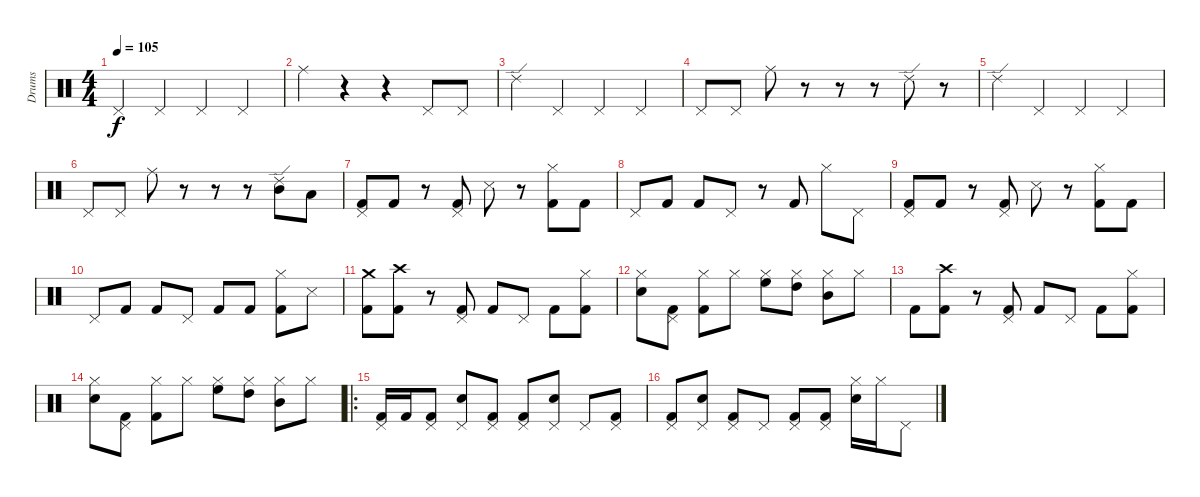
\track (" Drums" " Drums") {instrument percussion}
\staff {score}
\articulation defaults
\ts (4 4)
\tempo 105
\clef neutral
\ks c "Pedal Hi-Hat (hit)".4{dy f} "Pedal Hi-Hat (hit)".4 "Pedal Hi-Hat (hit)".4 "Pedal Hi-Hat (hit)".4
|
"Ride (middle)".4 r.4 r.4 "Pedal Hi-Hat (hit)".8 "Pedal Hi-Hat (hit)".8 |
"Ride (edge) 2".4 "Pedal Hi-Hat (hit)".4 "Pedal Hi-Hat (hit)".4 "Pedal Hi-Hat (hit)".4 |
"Pedal Hi-Hat (hit)".8 "Pedal Hi-Hat (hit)".8 "Ride (middle)".8 r.8 r.8 r.8 "Ride (edge) 2".8 r.8 |
"Ride (edge) 2".4 "Pedal Hi-Hat (hit)".4 "Pedal Hi-Hat (hit)".4 "Pedal Hi-Hat (hit)".4 |
"Pedal Hi-Hat (hit)".8 "Pedal Hi-Hat (hit)".8 "Ride (middle)".8 r.8 r.8 r.8 ("Ride (edge) 2" "Mid Tom (hit)").8 "Low Tom (hit)".8 |
("Pedal Hi-Hat (hit)" "Kick (hit) 2").8 "Kick (hit) 2".8 r.8 ("Pedal Hi-Hat (hit)" "Kick (hit) 2").8 "Snare (side stick) 3".8 r.8 ("Kick (hit) 2" "Hi-Hat (closed)").8 "Kick (hit) 2".8 |
"Pedal Hi-Hat (hit)".8 "Kick (hit) 2".8 "Kick (hit) 2".8 "Pedal Hi-Hat (hit)".8 r.8 "Kick (hit) 2".8 "Hi-Hat (closed)".8 "Pedal Hi-Hat (hit)".8 |
("Pedal Hi-Hat (hit)" "Kick (hit) 2").8 "Kick (hit) 2".8 r.8 ("Pedal Hi-Hat (hit)" "Kick (hit) 2").8 "Snare (side stick) 3".8 r.8 ("Kick (hit) 2" "Hi-Hat (closed)").8 "Kick (hit) 2".8 |
"Pedal Hi-Hat (hit)".8 "Kick (hit) 2".8 "Kick (hit) 2".8 "Pedal Hi-Hat (hit)".8 "Kick (hit) 2".8 "Kick (hit) 2".8 ("Hi-Hat (closed)" "Kick (hit) 2").8 "Snare (side stick) 3".8 |
("Crash medium (hit)" "Kick (hit) 2").8 ("Crash high (hit)" "Kick (hit) 2").8 r.8 ("Pedal Hi-Hat (hit)" "Kick (hit) 2").8 "Kick (hit) 2".8 "Pedal Hi-Hat (hit)".8 "Kick (hit) 2".8 ("Hi-Hat (closed)" "Kick (hit) 2").8 |
("Hi-Hat (closed)" "Electric Snare (hit)").8 ("Pedal Hi-Hat (hit)" "Kick (hit) 2").8 ("Hi-Hat (closed)" "Kick (hit) 2").8 "Hi-Hat (closed)".8 ("Hi-Hat (closed)" "High Floor Tom (hit)").8 ("Hi-Hat (closed)" "High Tom (hit)").8 ("Hi-Hat (closed)" "Mid Tom (hit)").8 "Hi-Hat (closed)".8 |
"Kick (hit) 2".8 ("Crash high (hit)" "Kick (hit) 2").8 r.8 ("Pedal Hi-Hat (hit)" "Kick (hit) 2").8 "Kick (hit) 2".8 "Pedal Hi-Hat (hit)".8 "Kick (hit) 2".8 ("Hi-Hat (closed)" "Kick (hit) 2").8 |
("Hi-Hat (closed)" "Electric Snare (hit)").8 ("Pedal Hi-Hat (hit)" "Kick (hit) 2").8 ("Hi-Hat (closed)" "Kick (hit) 2").8 "Hi-Hat (closed)".8 ("Hi-Hat (closed)" "High Floor Tom (hit)").8 ("Hi-Hat (closed)" "High Tom (hit)").8 ("Hi-Hat (closed)" "Mid Tom (hit)").8 "Hi-Hat (closed)".8 |
\ro
("Pedal Hi-Hat (hit)" "Kick (hit) 2").16 "Kick (hit) 2".16 ("Pedal Hi-Hat (hit)" "Kick (hit) 2").8 ("Pedal Hi-Hat (hit)" "Electric Snare (hit)").8 ("Pedal Hi-Hat (hit)" "Kick (hit) 2").8 ("Pedal Hi-Hat (hit)" "Kick (hit) 2").8 ("Pedal Hi-Hat (hit)" "Electric Snare (hit)").8 "Pedal Hi-Hat (hit)".8 ("Pedal Hi-Hat (hit)" "Kick (hit) 2").8 |
("Pedal Hi-Hat (hit)" "Kick (hit) 2").8 ("Pedal Hi-Hat (hit)" "Electric Snare (hit)").8 ("Pedal Hi-Hat (hit)" "Kick (hit) 2").8 "Pedal Hi-Hat (hit)".8 ("Pedal Hi-Hat (hit)" "Kick (hit) 2").8 ("Pedal Hi-Hat (hit)" "Kick (hit) 2").8 ("Hi-Hat (closed)" "Electric Snare (hit)").16 "Hi-Hat (closed)".16 "Pedal Hi-Hat (hit)".8
